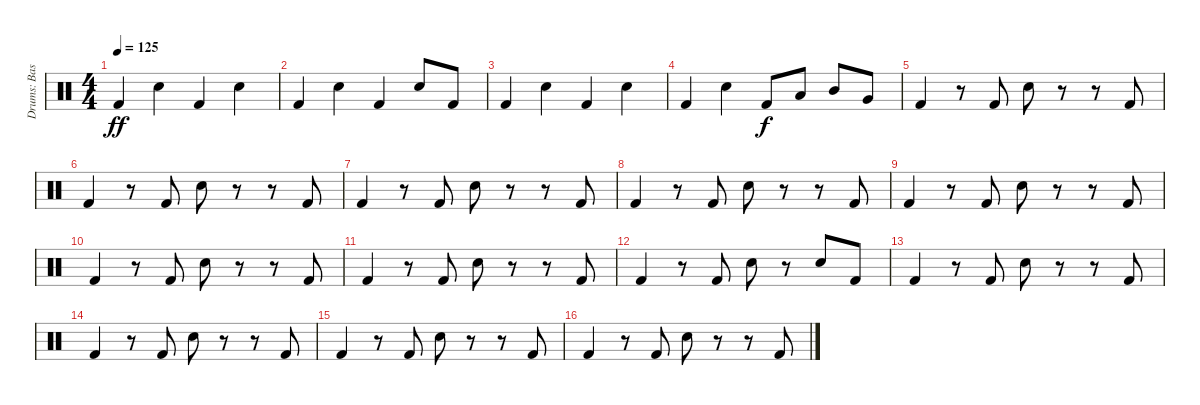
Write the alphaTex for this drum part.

\track ("Drums: Bass, Snare" "Drums: Bas") {instrument percussion}
\staff {score}
\articulation defaults
\ts (4 4)
\tempo 125
\clef neutral
\ks c "Kick (hit) 2".4{dy ff} "Electric Snare (hit)".4 "Kick (hit) 2".4 "Electric Snare (hit)".4
|
"Kick (hit) 2".4 "Electric Snare (hit)".4 "Kick (hit) 2".4 "Electric Snare (hit)".8 "Kick (hit) 2".8 |
"Kick (hit) 2".4 "Electric Snare (hit)".4 "Kick (hit) 2".4 "Electric Snare (hit)".4 |
"Kick (hit) 2".4 "Electric Snare (hit)".4 "Kick (hit) 2".8{dy f} "Low Tom (hit)".8 "Mid Tom (hit)".8 "Very Low Tom (hit)".8 |
"Kick (hit) 2".4 r.8 "Kick (hit) 2".8 "Electric Snare (hit)".8 r.8 r.8 "Kick (hit) 2".8 |
"Kick (hit) 2".4 r.8 "Kick (hit) 2".8 "Electric Snare (hit)".8 r.8 r.8 "Kick (hit) 2".8 |
"Kick (hit) 2".4 r.8 "Kick (hit) 2".8 "Electric Snare (hit)".8 r.8 r.8 "Kick (hit) 2".8 |
"Kick (hit) 2".4 r.8 "Kick (hit) 2".8 "Electric Snare (hit)".8 r.8 r.8 "Kick (hit) 2".8 |
"Kick (hit) 2".4 r.8 "Kick (hit) 2".8 "Electric Snare (hit)".8 r.8 r.8 "Kick (hit) 2".8 |
"Kick (hit) 2".4 r.8 "Kick (hit) 2".8 "Electric Snare (hit)".8 r.8 r.8 "Kick (hit) 2".8 |
"Kick (hit) 2".4 r.8 "Kick (hit) 2".8 "Electric Snare (hit)".8 r.8 r.8 "Kick (hit) 2".8 |
"Kick (hit) 2".4 r.8 "Kick (hit) 2".8 "Electric Snare (hit)".8 r.8 "Electric Snare (hit)".8 "Kick (hit) 2".8 |
"Kick (hit) 2".4 r.8 "Kick (hit) 2".8 "Electric Snare (hit)".8 r.8 r.8 "Kick (hit) 2".8 |
"Kick (hit) 2".4 r.8 "Kick (hit) 2".8 "Electric Snare (hit)".8 r.8 r.8 "Kick (hit) 2".8 |
"Kick (hit) 2".4 r.8 "Kick (hit) 2".8 "Electric Snare (hit)".8 r.8 r.8 "Kick (hit) 2".8 |
"Kick (hit) 2".4 r.8 "Kick (hit) 2".8 "Electric Snare (hit)".8 r.8 r.8 "Kick (hit) 2".8
